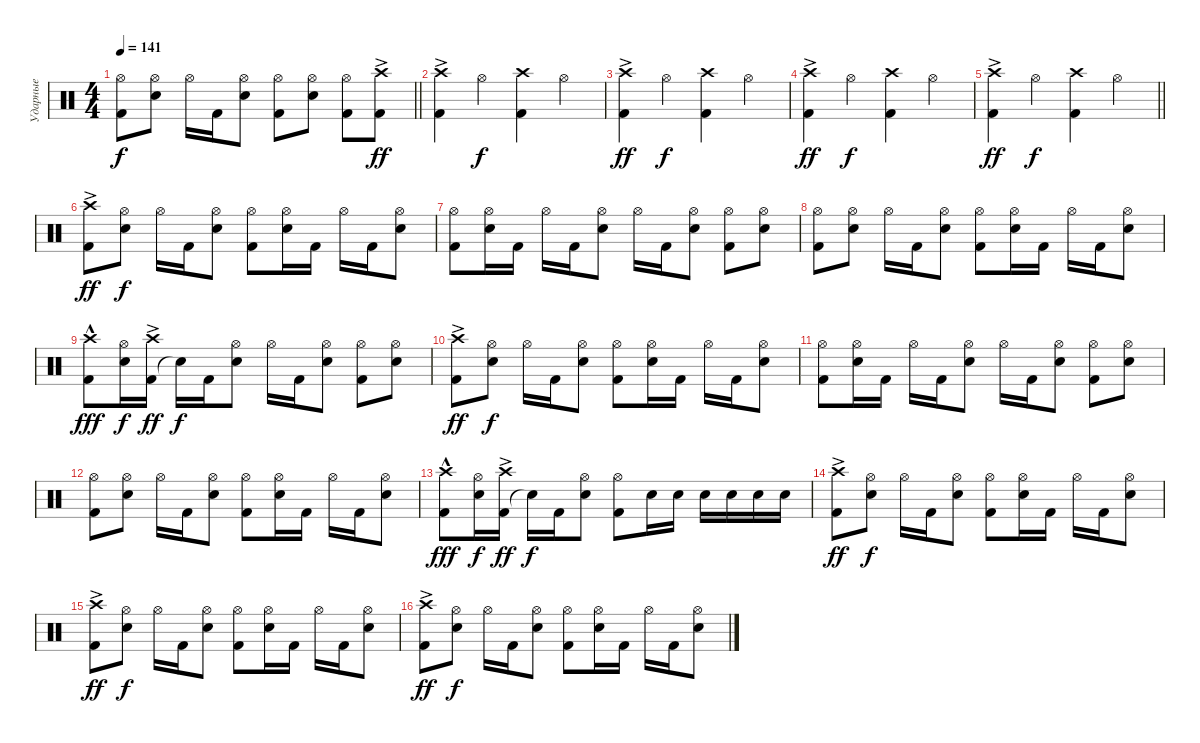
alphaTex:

\track ("Ударные" "Ударные") {instrument percussion}
\staff
\articulation defaults
\ts (4 4)
\tempo 141
\clef neutral
\barLineRight lightlight
\ks c
("Kick (hit) 2" "Hi-Hat (open)").8{dy f} ("Snare (hit) 2" "Hi-Hat (open)").8 "Hi-Hat (open)".16 "Kick (hit) 2".16 ("Snare (hit) 2" "Hi-Hat (open)").8 ("Kick (hit) 2" "Hi-Hat (open)").8 ("Snare (hit) 2" "Hi-Hat (open)").8 ("Kick (hit) 2" "Hi-Hat (open)").8 ("Kick (hit) 2" "Crash high (hit)"{ac}).8{dy ff} |
("Kick (hit) 2" "Crash high (hit)"{ac}).4 "Hi-Hat (open)".4{dy f} ("Kick (hit) 2" "Crash high (hit)").4 "Hi-Hat (open)".4 |
("Kick (hit) 2" "Crash high (hit)"{ac}).4{dy ff} "Hi-Hat (open)".4{dy f} ("Kick (hit) 2" "Crash high (hit)").4 "Hi-Hat (open)".4 |
("Kick (hit) 2" "Crash high (hit)"{ac}).4{dy ff} "Hi-Hat (open)".4{dy f} ("Kick (hit) 2" "Crash high (hit)").4 "Hi-Hat (open)".4 |
\barLineRight lightlight
("Kick (hit) 2" "Crash high (hit)"{ac}).4{dy ff} "Hi-Hat (open)".4{dy f} ("Kick (hit) 2" "Crash high (hit)").4 "Hi-Hat (open)".4 |
("Kick (hit) 2" "Crash high (hit)"{ac}).8{dy ff} ("Snare (hit) 2" "Hi-Hat (open)").8{dy f} "Hi-Hat (open)".16 "Kick (hit) 2".16 ("Snare (hit) 2" "Hi-Hat (open)").8 ("Kick (hit) 2" "Hi-Hat (open)").8 ("Snare (hit) 2" "Hi-Hat (open)").16 "Kick (hit) 2".16 "Hi-Hat (open)".16 "Kick (hit) 2".16 ("Snare (hit) 2" "Hi-Hat (open)").8 |
("Kick (hit) 2" "Hi-Hat (open)").8 ("Snare (hit) 2" "Hi-Hat (open)").16 "Kick (hit) 2".16 "Hi-Hat (open)".16 "Kick (hit) 2".16 ("Snare (hit) 2" "Hi-Hat (open)").8 "Hi-Hat (open)".16 "Kick (hit) 2".16 ("Snare (hit) 2" "Hi-Hat (open)").8 ("Kick (hit) 2" "Hi-Hat (open)").8 ("Snare (hit) 2" "Hi-Hat (open)").8 |
("Kick (hit) 2" "Hi-Hat (open)").8 ("Snare (hit) 2" "Hi-Hat (open)").8 "Hi-Hat (open)".16 "Kick (hit) 2".16 ("Snare (hit) 2" "Hi-Hat (open)").8 ("Kick (hit) 2" "Hi-Hat (open)").8 ("Snare (hit) 2" "Hi-Hat (open)").16 "Kick (hit) 2".16 "Hi-Hat (open)".16 "Kick (hit) 2".16 ("Snare (hit) 2" "Hi-Hat (open)").8 |
("Kick (hit) 2" "Crash high (hit)"{hac}).8{dy fff} ("Snare (hit) 2" "Hi-Hat (open)").16{dy f} ("Kick (hit) 2" "Crash high (hit)"{ac}).16{dy ff} "Snare (hit)"{t}.16{dy f} "Kick (hit) 2".16 ("Snare (hit) 2" "Hi-Hat (open)").8 "Hi-Hat (open)".16 "Kick (hit) 2".16 ("Snare (hit) 2" "Hi-Hat (open)").8 ("Kick (hit) 2" "Hi-Hat (open)").8 ("Snare (hit) 2" "Hi-Hat (open)").8 |
("Kick (hit) 2" "Crash high (hit)"{ac}).8{dy ff} ("Snare (hit) 2" "Hi-Hat (open)").8{dy f} "Hi-Hat (open)".16 "Kick (hit) 2".16 ("Snare (hit) 2" "Hi-Hat (open)").8 ("Kick (hit) 2" "Hi-Hat (open)").8 ("Snare (hit) 2" "Hi-Hat (open)").16 "Kick (hit) 2".16 "Hi-Hat (open)".16 "Kick (hit) 2".16 ("Snare (hit) 2" "Hi-Hat (open)").8 |
("Kick (hit) 2" "Hi-Hat (open)").8 ("Snare (hit) 2" "Hi-Hat (open)").16 "Kick (hit) 2".16 "Hi-Hat (open)".16 "Kick (hit) 2".16 ("Snare (hit) 2" "Hi-Hat (open)").8 "Hi-Hat (open)".16 "Kick (hit) 2".16 ("Snare (hit) 2" "Hi-Hat (open)").8 ("Kick (hit) 2" "Hi-Hat (open)").8 ("Snare (hit) 2" "Hi-Hat (open)").8 |
("Kick (hit) 2" "Hi-Hat (open)").8 ("Snare (hit) 2" "Hi-Hat (open)").8 "Hi-Hat (open)".16 "Kick (hit) 2".16 ("Snare (hit) 2" "Hi-Hat (open)").8 ("Kick (hit) 2" "Hi-Hat (open)").8 ("Snare (hit) 2" "Hi-Hat (open)").16 "Kick (hit) 2".16 "Hi-Hat (open)".16 "Kick (hit) 2".16 ("Snare (hit) 2" "Hi-Hat (open)").8 |
("Kick (hit) 2" "Crash high (hit)"{hac}).8{dy fff} ("Snare (hit) 2" "Hi-Hat (open)").16{dy f} ("Kick (hit) 2" "Crash high (hit)"{ac}).16{dy ff} "Snare (hit)"{t}.16{dy f} "Kick (hit) 2".16 ("Snare (hit) 2" "Hi-Hat (open)").8 ("Kick (hit) 2" "Hi-Hat (open)").8 "Snare (hit) 2".16 "Snare (hit) 2".16 "Snare (hit) 2".16 "Snare (hit) 2".16 "Snare (hit) 2".16 "Snare (hit) 2".16 |
("Kick (hit) 2" "Crash high (hit)"{ac}).8{dy ff} ("Snare (hit) 2" "Hi-Hat (open)").8{dy f} "Hi-Hat (open)".16 "Kick (hit) 2".16 ("Snare (hit) 2" "Hi-Hat (open)").8 ("Kick (hit) 2" "Hi-Hat (open)").8 ("Snare (hit) 2" "Hi-Hat (open)").16 "Kick (hit) 2".16 "Hi-Hat (open)".16 "Kick (hit) 2".16 ("Snare (hit) 2" "Hi-Hat (open)").8 |
("Kick (hit) 2" "Crash high (hit)"{ac}).8{dy ff} ("Snare (hit) 2" "Hi-Hat (open)").8{dy f} "Hi-Hat (open)".16 "Kick (hit) 2".16 ("Snare (hit) 2" "Hi-Hat (open)").8 ("Kick (hit) 2" "Hi-Hat (open)").8 ("Snare (hit) 2" "Hi-Hat (open)").16 "Kick (hit) 2".16 "Hi-Hat (open)".16 "Kick (hit) 2".16 ("Snare (hit) 2" "Hi-Hat (open)").8 |
("Kick (hit) 2" "Crash high (hit)"{ac}).8{dy ff} ("Snare (hit) 2" "Hi-Hat (open)").8{dy f} "Hi-Hat (open)".16 "Kick (hit) 2".16 ("Snare (hit) 2" "Hi-Hat (open)").8 ("Kick (hit) 2" "Hi-Hat (open)").8 ("Snare (hit) 2" "Hi-Hat (open)").16 "Kick (hit) 2".16 "Hi-Hat (open)".16 "Kick (hit) 2".16 ("Snare (hit) 2" "Hi-Hat (open)").8
